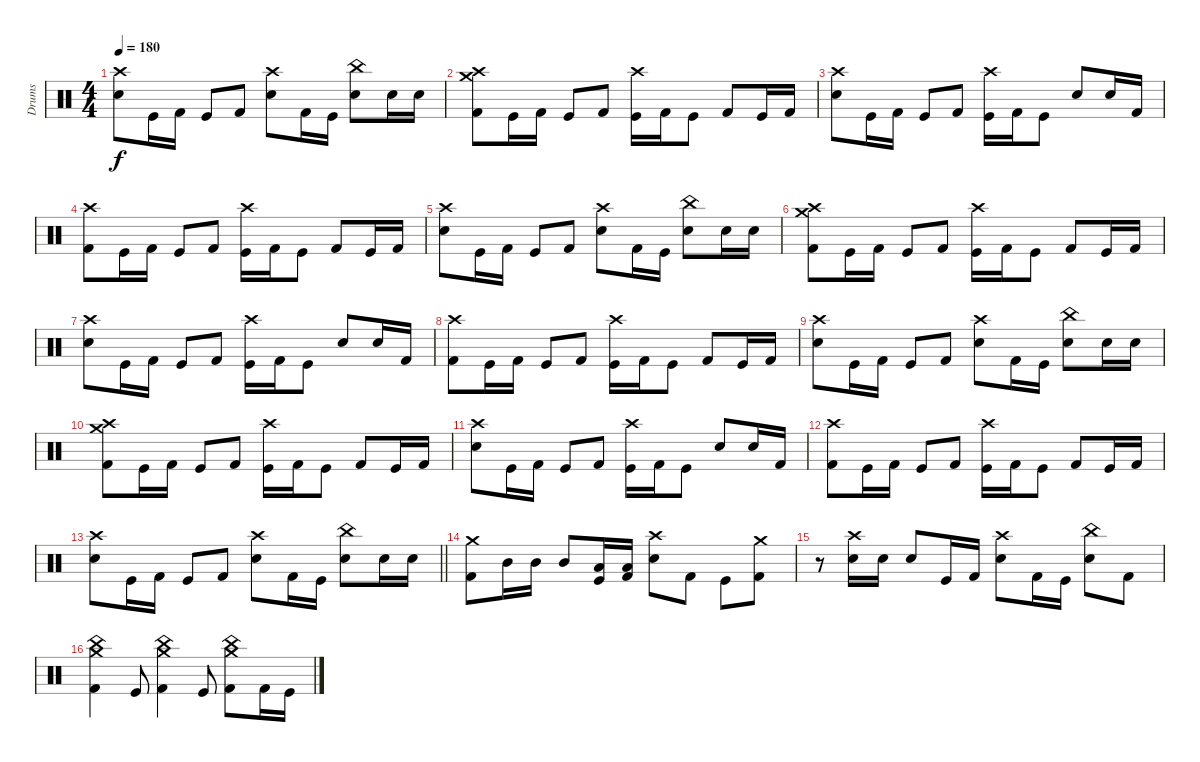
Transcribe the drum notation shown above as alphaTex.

\track ("Drums" "Drums") {instrument percussion}
\staff {score}
\articulation defaults
\ts (4 4)
\tempo 180
\clef neutral
\ks c
("Crash high (hit)" "Electric Snare (hit)").8{dy f} "Kick (hit)".16 "Kick (hit) 2".16 "Kick (hit)".8 "Kick (hit) 2".8 ("Crash high (hit)" "Electric Snare (hit)").8 "Kick (hit) 2".16 "Kick (hit)".16 ("China (hit)" "Electric Snare (hit)").8 "Electric Snare (hit)".16 "Electric Snare (hit)".16 |
("Crash medium (hit)" "Crash high (hit)" "Kick (hit) 2").8 "Kick (hit)".16 "Kick (hit) 2".16 "Kick (hit)".8 "Kick (hit) 2".8 ("Crash high (hit)" "Kick (hit)").16 "Kick (hit) 2".16 "Kick (hit)".8 "Kick (hit) 2".8 "Kick (hit)".16 "Kick (hit) 2".16 |
("Crash high (hit)" "Electric Snare (hit)").8 "Kick (hit)".16 "Kick (hit) 2".16 "Kick (hit)".8 "Kick (hit) 2".8 ("Crash high (hit)" "Kick (hit)").16 "Kick (hit) 2".16 "Kick (hit)".8 "Electric Snare (hit)".8 "Electric Snare (hit)".16 "Kick (hit) 2".16 |
("Crash high (hit)" "Kick (hit) 2").8 "Kick (hit)".16 "Kick (hit) 2".16 "Kick (hit)".8 "Kick (hit) 2".8 ("Crash high (hit)" "Kick (hit)").16 "Kick (hit) 2".16 "Kick (hit)".8 "Kick (hit) 2".8 "Kick (hit)".16 "Kick (hit) 2".16 |
("Crash high (hit)" "Electric Snare (hit)").8 "Kick (hit)".16 "Kick (hit) 2".16 "Kick (hit)".8 "Kick (hit) 2".8 ("Crash high (hit)" "Electric Snare (hit)").8 "Kick (hit) 2".16 "Kick (hit)".16 ("China (hit)" "Electric Snare (hit)").8 "Electric Snare (hit)".16 "Electric Snare (hit)".16 |
("Crash medium (hit)" "Crash high (hit)" "Kick (hit) 2").8 "Kick (hit)".16 "Kick (hit) 2".16 "Kick (hit)".8 "Kick (hit) 2".8 ("Crash high (hit)" "Kick (hit)").16 "Kick (hit) 2".16 "Kick (hit)".8 "Kick (hit) 2".8 "Kick (hit)".16 "Kick (hit) 2".16 |
("Crash high (hit)" "Electric Snare (hit)").8 "Kick (hit)".16 "Kick (hit) 2".16 "Kick (hit)".8 "Kick (hit) 2".8 ("Crash high (hit)" "Kick (hit)").16 "Kick (hit) 2".16 "Kick (hit)".8 "Electric Snare (hit)".8 "Electric Snare (hit)".16 "Kick (hit) 2".16 |
("Crash high (hit)" "Kick (hit) 2").8 "Kick (hit)".16 "Kick (hit) 2".16 "Kick (hit)".8 "Kick (hit) 2".8 ("Crash high (hit)" "Kick (hit)").16 "Kick (hit) 2".16 "Kick (hit)".8 "Kick (hit) 2".8 "Kick (hit)".16 "Kick (hit) 2".16 |
("Crash high (hit)" "Electric Snare (hit)").8 "Kick (hit)".16 "Kick (hit) 2".16 "Kick (hit)".8 "Kick (hit) 2".8 ("Crash high (hit)" "Electric Snare (hit)").8 "Kick (hit) 2".16 "Kick (hit)".16 ("China (hit)" "Electric Snare (hit)").8 "Electric Snare (hit)".16 "Electric Snare (hit)".16 |
("Crash medium (hit)" "Crash high (hit)" "Kick (hit) 2").8 "Kick (hit)".16 "Kick (hit) 2".16 "Kick (hit)".8 "Kick (hit) 2".8 ("Crash high (hit)" "Kick (hit)").16 "Kick (hit) 2".16 "Kick (hit)".8 "Kick (hit) 2".8 "Kick (hit)".16 "Kick (hit) 2".16 |
("Crash high (hit)" "Electric Snare (hit)").8 "Kick (hit)".16 "Kick (hit) 2".16 "Kick (hit)".8 "Kick (hit) 2".8 ("Crash high (hit)" "Kick (hit)").16 "Kick (hit) 2".16 "Kick (hit)".8 "Electric Snare (hit)".8 "Electric Snare (hit)".16 "Kick (hit) 2".16 |
("Crash high (hit)" "Kick (hit) 2").8 "Kick (hit)".16 "Kick (hit) 2".16 "Kick (hit)".8 "Kick (hit) 2".8 ("Crash high (hit)" "Kick (hit)").16 "Kick (hit) 2".16 "Kick (hit)".8 "Kick (hit) 2".8 "Kick (hit)".16 "Kick (hit) 2".16 |
\barLineRight lightlight
("Crash high (hit)" "Electric Snare (hit)").8 "Kick (hit)".16 "Kick (hit) 2".16 "Kick (hit)".8 "Kick (hit) 2".8 ("Crash high (hit)" "Electric Snare (hit)").8 "Kick (hit) 2".16 "Kick (hit)".16 ("China (hit)" "Electric Snare (hit)").8 "Electric Snare (hit)".16 "Electric Snare (hit)".16 |
("Crash medium (hit)" "Kick (hit) 2").8 "Mid Tom (hit)".16 "Mid Tom (hit)".16 "Mid Tom (hit)".8 ("Low Tom (hit)" "Kick (hit)").16 ("Low Tom (hit)" "Kick (hit) 2").16 ("Crash high (hit)" "Electric Snare (hit)").8 "Kick (hit) 2".8 "Kick (hit)".8 ("Crash medium (hit)" "Kick (hit) 2").8 |
r.8 ("Crash high (hit)" "Electric Snare (hit)").16 "Electric Snare (hit)".16 "Electric Snare (hit)".8 "Kick (hit)".16 "Kick (hit) 2".16 ("Crash high (hit)" "Electric Snare (hit)").8 "Kick (hit) 2".16 "Kick (hit)".16 ("China (hit)" "Electric Snare (hit)").8 "Kick (hit) 2".8 |
("Crash medium (hit)" "China (hit)" "Kick (hit) 2").4 "Kick (hit)".8 ("Crash medium (hit)" "China (hit)" "Kick (hit) 2").4 "Kick (hit)".8 ("Crash medium (hit)" "China (hit)" "Kick (hit) 2").8 "Kick (hit) 2".16 "Kick (hit)".16
